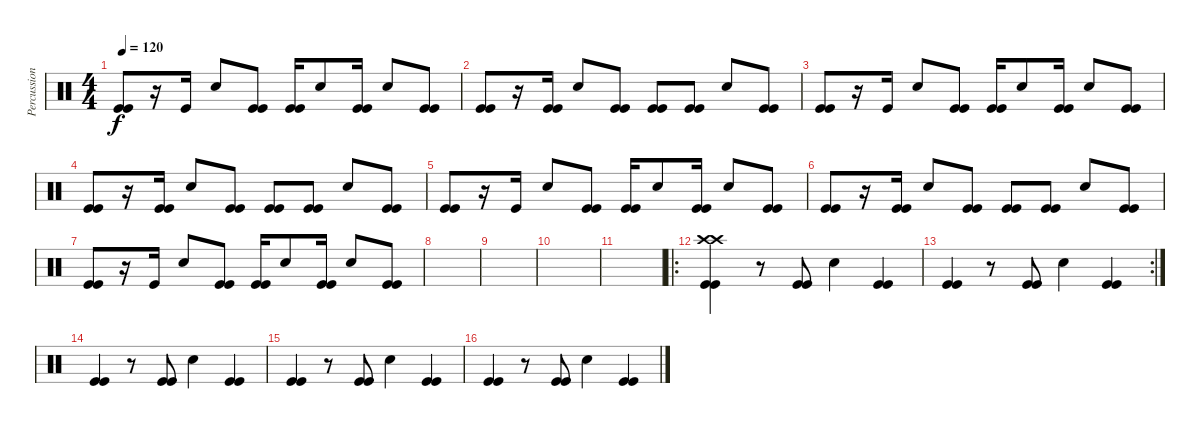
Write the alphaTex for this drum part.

\track ("Percussion" "Percussion") {instrument percussion}
\staff {score}
\articulation defaults
\ts (4 4)
\tempo 120
\clef neutral
\ks c
("Kick (hit)" "Kick (hit)").8{dy f} r.16 "Kick (hit)".16 "Electric Snare (hit)".8 ("Kick (hit)" "Kick (hit)").8 ("Kick (hit)" "Kick (hit)").16 "Electric Snare (hit)".8 ("Kick (hit)" "Kick (hit)").16 "Electric Snare (hit)".8 ("Kick (hit)" "Kick (hit)").8 |
("Kick (hit)" "Kick (hit)").8 r.16 ("Kick (hit)" "Kick (hit)").16 "Electric Snare (hit)".8 ("Kick (hit)" "Kick (hit)").8 ("Kick (hit)" "Kick (hit)").8 ("Kick (hit)" "Kick (hit)").8 "Electric Snare (hit)".8 ("Kick (hit)" "Kick (hit)").8 |
("Kick (hit)" "Kick (hit)").8 r.16 "Kick (hit)".16 "Electric Snare (hit)".8 ("Kick (hit)" "Kick (hit)").8 ("Kick (hit)" "Kick (hit)").16 "Electric Snare (hit)".8 ("Kick (hit)" "Kick (hit)").16 "Electric Snare (hit)".8 ("Kick (hit)" "Kick (hit)").8 |
("Kick (hit)" "Kick (hit)").8 r.16 ("Kick (hit)" "Kick (hit)").16 "Electric Snare (hit)".8 ("Kick (hit)" "Kick (hit)").8 ("Kick (hit)" "Kick (hit)").8 ("Kick (hit)" "Kick (hit)").8 "Electric Snare (hit)".8 ("Kick (hit)" "Kick (hit)").8 |
("Kick (hit)" "Kick (hit)").8 r.16 "Kick (hit)".16 "Electric Snare (hit)".8 ("Kick (hit)" "Kick (hit)").8 ("Kick (hit)" "Kick (hit)").16 "Electric Snare (hit)".8 ("Kick (hit)" "Kick (hit)").16 "Electric Snare (hit)".8 ("Kick (hit)" "Kick (hit)").8 |
("Kick (hit)" "Kick (hit)").8 r.16 ("Kick (hit)" "Kick (hit)").16 "Electric Snare (hit)".8 ("Kick (hit)" "Kick (hit)").8 ("Kick (hit)" "Kick (hit)").8 ("Kick (hit)" "Kick (hit)").8 "Electric Snare (hit)".8 ("Kick (hit)" "Kick (hit)").8 |
("Kick (hit)" "Kick (hit)").8 r.16 "Kick (hit)".16 "Electric Snare (hit)".8 ("Kick (hit)" "Kick (hit)").8 ("Kick (hit)" "Kick (hit)").16 "Electric Snare (hit)".8 ("Kick (hit)" "Kick (hit)").16 "Electric Snare (hit)".8 ("Kick (hit)" "Kick (hit)").8 |
|
|
|
|
\ro
("Kick (hit)" "Kick (hit)" "Crash high (hit)" "Crash high (hit)").4 r.8 ("Kick (hit)" "Kick (hit)").8 "Electric Snare (hit)".4 ("Kick (hit)" "Kick (hit)").4 |
\rc 2
("Kick (hit)" "Kick (hit)").4 r.8 ("Kick (hit)" "Kick (hit)").8 "Electric Snare (hit)".4 ("Kick (hit)" "Kick (hit)").4 |
("Kick (hit)" "Kick (hit)").4 r.8 ("Kick (hit)" "Kick (hit)").8 "Electric Snare (hit)".4 ("Kick (hit)" "Kick (hit)").4 |
("Kick (hit)" "Kick (hit)").4 r.8 ("Kick (hit)" "Kick (hit)").8 "Electric Snare (hit)".4 ("Kick (hit)" "Kick (hit)").4 |
("Kick (hit)" "Kick (hit)").4 r.8 ("Kick (hit)" "Kick (hit)").8 "Electric Snare (hit)".4 ("Kick (hit)" "Kick (hit)").4
